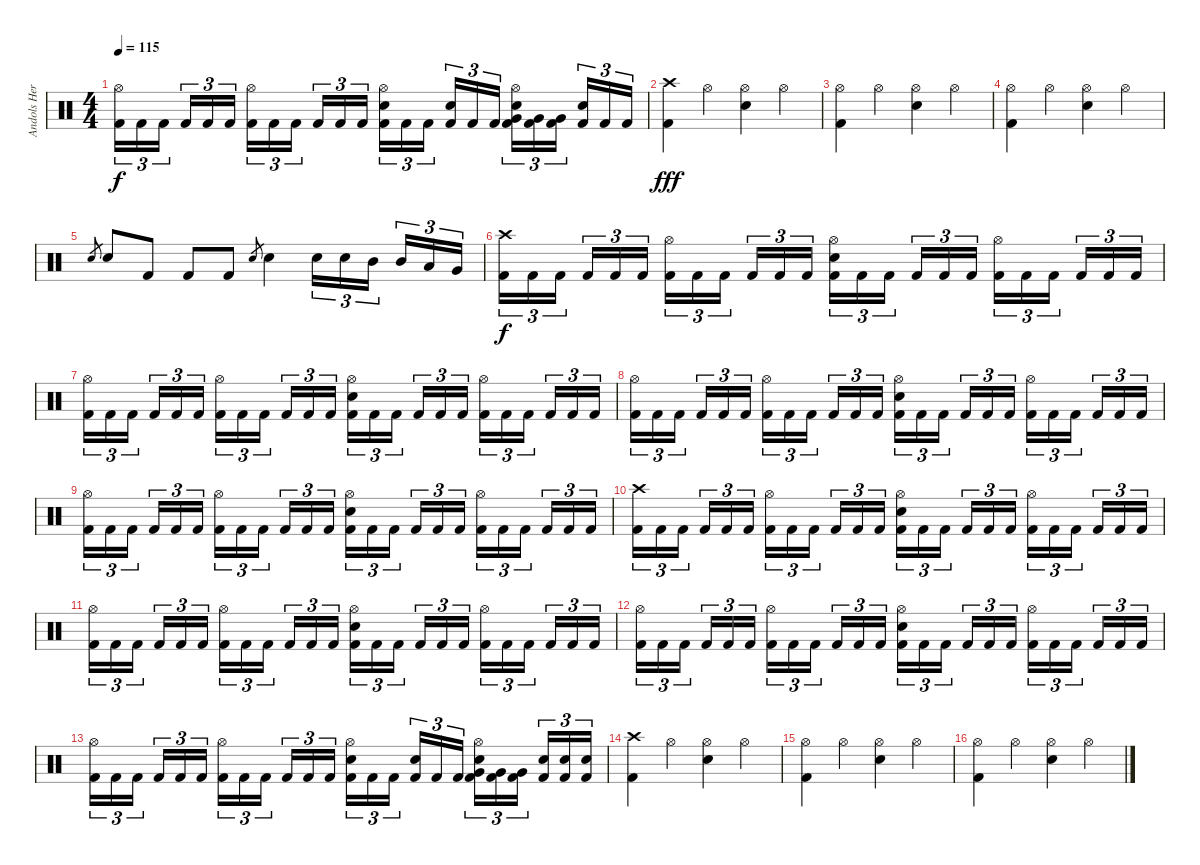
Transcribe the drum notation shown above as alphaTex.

\track ("Andols Herrick" "Andols Her") {instrument percussion}
\staff {score}
\articulation defaults
\ts (4 4)
\tempo 115
\clef neutral
\ks c
("Hi-Hat (open)" "Kick (hit) 2").16{tu (3 2) dy f} "Kick (hit) 2".16{tu (3 2)} "Kick (hit) 2".16{tu (3 2) beam splitsecondary} "Kick (hit) 2".16{tu (3 2)} "Kick (hit) 2".16{tu (3 2)} "Kick (hit) 2".16{tu (3 2)} ("Hi-Hat (open)" "Kick (hit) 2").16{tu (3 2)} "Kick (hit) 2".16{tu (3 2)} "Kick (hit) 2".16{tu (3 2) beam splitsecondary} "Kick (hit) 2".16{tu (3 2)} "Kick (hit) 2".16{tu (3 2)} "Kick (hit) 2".16{tu (3 2)} ("Hi-Hat (open)" "Electric Snare (hit)" "Kick (hit) 2").16{tu (3 2)} "Kick (hit) 2".16{tu (3 2)} "Kick (hit) 2".16{tu (3 2) beam splitsecondary} ("Electric Snare (hit)" "Kick (hit) 2").16{tu (3 2)} "Kick (hit) 2".16{tu (3 2)} "Kick (hit) 2".16{tu (3 2)} ("Hi-Hat (open)" "Electric Snare (hit)" "Very Low Tom (hit)" "Kick (hit) 2").16{tu (3 2)} ("Very Low Tom (hit)" "Kick (hit) 2").16{tu (3 2)} ("Very Low Tom (hit)" "Kick (hit) 2").16{tu (3 2) beam splitsecondary} ("Electric Snare (hit)" "Kick (hit) 2").16{tu (3 2)} "Kick (hit) 2".16{tu (3 2)} "Kick (hit) 2".16{tu (3 2)} |
("Crash high (hit)" "Kick (hit) 2").4{dy fff} "Hi-Hat (open)".4 ("Hi-Hat (open)" "Electric Snare (hit)").4 "Hi-Hat (open)".4 |
("Hi-Hat (open)" "Kick (hit) 2").4 "Hi-Hat (open)".4 ("Hi-Hat (open)" "Electric Snare (hit)").4 "Hi-Hat (open)".4 |
("Hi-Hat (open)" "Kick (hit) 2").4 "Hi-Hat (open)".4 ("Hi-Hat (open)" "Electric Snare (hit)").4 "Hi-Hat (open)".4 |
"Electric Snare (hit)".8{gr} "Electric Snare (hit)".8 "Kick (hit) 2".8 "Kick (hit) 2".8 "Kick (hit) 2".8 "Electric Snare (hit)".8{gr} "Electric Snare (hit)".4 "Electric Snare (hit)".16{tu (3 2)} "Electric Snare (hit)".16{tu (3 2)} "Mid Tom (hit)".16{tu (3 2) beam splitsecondary} "Mid Tom (hit)".16{tu (3 2)} "Low Tom (hit)".16{tu (3 2)} "Very Low Tom (hit)".16{tu (3 2)} |
("Crash high (hit)" "Kick (hit) 2").16{tu (3 2) dy f} "Kick (hit) 2".16{tu (3 2)} "Kick (hit) 2".16{tu (3 2) beam splitsecondary} "Kick (hit) 2".16{tu (3 2)} "Kick (hit) 2".16{tu (3 2)} "Kick (hit) 2".16{tu (3 2)} ("Hi-Hat (open)" "Kick (hit) 2").16{tu (3 2)} "Kick (hit) 2".16{tu (3 2)} "Kick (hit) 2".16{tu (3 2) beam splitsecondary} "Kick (hit) 2".16{tu (3 2)} "Kick (hit) 2".16{tu (3 2)} "Kick (hit) 2".16{tu (3 2)} ("Hi-Hat (open)" "Electric Snare (hit)" "Kick (hit) 2").16{tu (3 2)} "Kick (hit) 2".16{tu (3 2)} "Kick (hit) 2".16{tu (3 2) beam splitsecondary} "Kick (hit) 2".16{tu (3 2)} "Kick (hit) 2".16{tu (3 2)} "Kick (hit) 2".16{tu (3 2)} ("Hi-Hat (open)" "Kick (hit) 2").16{tu (3 2)} "Kick (hit) 2".16{tu (3 2)} "Kick (hit) 2".16{tu (3 2) beam splitsecondary} "Kick (hit) 2".16{tu (3 2)} "Kick (hit) 2".16{tu (3 2)} "Kick (hit) 2".16{tu (3 2)} |
("Hi-Hat (open)" "Kick (hit) 2").16{tu (3 2)} "Kick (hit) 2".16{tu (3 2)} "Kick (hit) 2".16{tu (3 2) beam splitsecondary} "Kick (hit) 2".16{tu (3 2)} "Kick (hit) 2".16{tu (3 2)} "Kick (hit) 2".16{tu (3 2)} ("Hi-Hat (open)" "Kick (hit) 2").16{tu (3 2)} "Kick (hit) 2".16{tu (3 2)} "Kick (hit) 2".16{tu (3 2) beam splitsecondary} "Kick (hit) 2".16{tu (3 2)} "Kick (hit) 2".16{tu (3 2)} "Kick (hit) 2".16{tu (3 2)} ("Hi-Hat (open)" "Electric Snare (hit)" "Kick (hit) 2").16{tu (3 2)} "Kick (hit) 2".16{tu (3 2)} "Kick (hit) 2".16{tu (3 2) beam splitsecondary} "Kick (hit) 2".16{tu (3 2)} "Kick (hit) 2".16{tu (3 2)} "Kick (hit) 2".16{tu (3 2)} ("Hi-Hat (open)" "Kick (hit) 2").16{tu (3 2)} "Kick (hit) 2".16{tu (3 2)} "Kick (hit) 2".16{tu (3 2) beam splitsecondary} "Kick (hit) 2".16{tu (3 2)} "Kick (hit) 2".16{tu (3 2)} "Kick (hit) 2".16{tu (3 2)} |
("Hi-Hat (open)" "Kick (hit) 2").16{tu (3 2)} "Kick (hit) 2".16{tu (3 2)} "Kick (hit) 2".16{tu (3 2) beam splitsecondary} "Kick (hit) 2".16{tu (3 2)} "Kick (hit) 2".16{tu (3 2)} "Kick (hit) 2".16{tu (3 2)} ("Hi-Hat (open)" "Kick (hit) 2").16{tu (3 2)} "Kick (hit) 2".16{tu (3 2)} "Kick (hit) 2".16{tu (3 2) beam splitsecondary} "Kick (hit) 2".16{tu (3 2)} "Kick (hit) 2".16{tu (3 2)} "Kick (hit) 2".16{tu (3 2)} ("Hi-Hat (open)" "Electric Snare (hit)" "Kick (hit) 2").16{tu (3 2)} "Kick (hit) 2".16{tu (3 2)} "Kick (hit) 2".16{tu (3 2) beam splitsecondary} "Kick (hit) 2".16{tu (3 2)} "Kick (hit) 2".16{tu (3 2)} "Kick (hit) 2".16{tu (3 2)} ("Hi-Hat (open)" "Kick (hit) 2").16{tu (3 2)} "Kick (hit) 2".16{tu (3 2)} "Kick (hit) 2".16{tu (3 2) beam splitsecondary} "Kick (hit) 2".16{tu (3 2)} "Kick (hit) 2".16{tu (3 2)} "Kick (hit) 2".16{tu (3 2)} |
("Hi-Hat (open)" "Kick (hit) 2").16{tu (3 2)} "Kick (hit) 2".16{tu (3 2)} "Kick (hit) 2".16{tu (3 2) beam splitsecondary} "Kick (hit) 2".16{tu (3 2)} "Kick (hit) 2".16{tu (3 2)} "Kick (hit) 2".16{tu (3 2)} ("Hi-Hat (open)" "Kick (hit) 2").16{tu (3 2)} "Kick (hit) 2".16{tu (3 2)} "Kick (hit) 2".16{tu (3 2) beam splitsecondary} "Kick (hit) 2".16{tu (3 2)} "Kick (hit) 2".16{tu (3 2)} "Kick (hit) 2".16{tu (3 2)} ("Hi-Hat (open)" "Electric Snare (hit)" "Kick (hit) 2").16{tu (3 2)} "Kick (hit) 2".16{tu (3 2)} "Kick (hit) 2".16{tu (3 2) beam splitsecondary} "Kick (hit) 2".16{tu (3 2)} "Kick (hit) 2".16{tu (3 2)} "Kick (hit) 2".16{tu (3 2)} ("Hi-Hat (open)" "Kick (hit) 2").16{tu (3 2)} "Kick (hit) 2".16{tu (3 2)} "Kick (hit) 2".16{tu (3 2) beam splitsecondary} "Kick (hit) 2".16{tu (3 2)} "Kick (hit) 2".16{tu (3 2)} "Kick (hit) 2".16{tu (3 2)} |
("Crash high (hit)" "Kick (hit) 2").16{tu (3 2)} "Kick (hit) 2".16{tu (3 2)} "Kick (hit) 2".16{tu (3 2) beam splitsecondary} "Kick (hit) 2".16{tu (3 2)} "Kick (hit) 2".16{tu (3 2)} "Kick (hit) 2".16{tu (3 2)} ("Hi-Hat (open)" "Kick (hit) 2").16{tu (3 2)} "Kick (hit) 2".16{tu (3 2)} "Kick (hit) 2".16{tu (3 2) beam splitsecondary} "Kick (hit) 2".16{tu (3 2)} "Kick (hit) 2".16{tu (3 2)} "Kick (hit) 2".16{tu (3 2)} ("Hi-Hat (open)" "Electric Snare (hit)" "Kick (hit) 2").16{tu (3 2)} "Kick (hit) 2".16{tu (3 2)} "Kick (hit) 2".16{tu (3 2) beam splitsecondary} "Kick (hit) 2".16{tu (3 2)} "Kick (hit) 2".16{tu (3 2)} "Kick (hit) 2".16{tu (3 2)} ("Hi-Hat (open)" "Kick (hit) 2").16{tu (3 2)} "Kick (hit) 2".16{tu (3 2)} "Kick (hit) 2".16{tu (3 2) beam splitsecondary} "Kick (hit) 2".16{tu (3 2)} "Kick (hit) 2".16{tu (3 2)} "Kick (hit) 2".16{tu (3 2)} |
("Hi-Hat (open)" "Kick (hit) 2").16{tu (3 2)} "Kick (hit) 2".16{tu (3 2)} "Kick (hit) 2".16{tu (3 2) beam splitsecondary} "Kick (hit) 2".16{tu (3 2)} "Kick (hit) 2".16{tu (3 2)} "Kick (hit) 2".16{tu (3 2)} ("Hi-Hat (open)" "Kick (hit) 2").16{tu (3 2)} "Kick (hit) 2".16{tu (3 2)} "Kick (hit) 2".16{tu (3 2) beam splitsecondary} "Kick (hit) 2".16{tu (3 2)} "Kick (hit) 2".16{tu (3 2)} "Kick (hit) 2".16{tu (3 2)} ("Hi-Hat (open)" "Electric Snare (hit)" "Kick (hit) 2").16{tu (3 2)} "Kick (hit) 2".16{tu (3 2)} "Kick (hit) 2".16{tu (3 2) beam splitsecondary} "Kick (hit) 2".16{tu (3 2)} "Kick (hit) 2".16{tu (3 2)} "Kick (hit) 2".16{tu (3 2)} ("Hi-Hat (open)" "Kick (hit) 2").16{tu (3 2)} "Kick (hit) 2".16{tu (3 2)} "Kick (hit) 2".16{tu (3 2) beam splitsecondary} "Kick (hit) 2".16{tu (3 2)} "Kick (hit) 2".16{tu (3 2)} "Kick (hit) 2".16{tu (3 2)} |
("Hi-Hat (open)" "Kick (hit) 2").16{tu (3 2)} "Kick (hit) 2".16{tu (3 2)} "Kick (hit) 2".16{tu (3 2) beam splitsecondary} "Kick (hit) 2".16{tu (3 2)} "Kick (hit) 2".16{tu (3 2)} "Kick (hit) 2".16{tu (3 2)} ("Hi-Hat (open)" "Kick (hit) 2").16{tu (3 2)} "Kick (hit) 2".16{tu (3 2)} "Kick (hit) 2".16{tu (3 2) beam splitsecondary} "Kick (hit) 2".16{tu (3 2)} "Kick (hit) 2".16{tu (3 2)} "Kick (hit) 2".16{tu (3 2)} ("Hi-Hat (open)" "Electric Snare (hit)" "Kick (hit) 2").16{tu (3 2)} "Kick (hit) 2".16{tu (3 2)} "Kick (hit) 2".16{tu (3 2) beam splitsecondary} "Kick (hit) 2".16{tu (3 2)} "Kick (hit) 2".16{tu (3 2)} "Kick (hit) 2".16{tu (3 2)} ("Hi-Hat (open)" "Kick (hit) 2").16{tu (3 2)} "Kick (hit) 2".16{tu (3 2)} "Kick (hit) 2".16{tu (3 2) beam splitsecondary} "Kick (hit) 2".16{tu (3 2)} "Kick (hit) 2".16{tu (3 2)} "Kick (hit) 2".16{tu (3 2)} |
("Hi-Hat (open)" "Kick (hit) 2").16{tu (3 2)} "Kick (hit) 2".16{tu (3 2)} "Kick (hit) 2".16{tu (3 2) beam splitsecondary} "Kick (hit) 2".16{tu (3 2)} "Kick (hit) 2".16{tu (3 2)} "Kick (hit) 2".16{tu (3 2)} ("Hi-Hat (open)" "Kick (hit) 2").16{tu (3 2)} "Kick (hit) 2".16{tu (3 2)} "Kick (hit) 2".16{tu (3 2) beam splitsecondary} "Kick (hit) 2".16{tu (3 2)} "Kick (hit) 2".16{tu (3 2)} "Kick (hit) 2".16{tu (3 2)} ("Hi-Hat (open)" "Electric Snare (hit)" "Kick (hit) 2").16{tu (3 2)} "Kick (hit) 2".16{tu (3 2)} "Kick (hit) 2".16{tu (3 2) beam splitsecondary} ("Electric Snare (hit)" "Kick (hit) 2").16{tu (3 2)} "Kick (hit) 2".16{tu (3 2)} "Kick (hit) 2".16{tu (3 2)} ("Hi-Hat (open)" "Electric Snare (hit)" "Very Low Tom (hit)" "Kick (hit) 2").16{tu (3 2)} ("Very Low Tom (hit)" "Kick (hit) 2").16{tu (3 2)} ("Very Low Tom (hit)" "Kick (hit) 2").16{tu (3 2) beam splitsecondary} ("Electric Snare (hit)" "Kick (hit) 2").16{tu (3 2)} ("Electric Snare (hit)" "Kick (hit) 2").16{tu (3 2)} ("Electric Snare (hit)" "Kick (hit) 2").16{tu (3 2)} |
("Crash high (hit)" "Kick (hit) 2").4 "Hi-Hat (open)".4 ("Hi-Hat (open)" "Electric Snare (hit)").4 "Hi-Hat (open)".4 |
("Hi-Hat (open)" "Kick (hit) 2").4 "Hi-Hat (open)".4 ("Hi-Hat (open)" "Electric Snare (hit)").4 "Hi-Hat (open)".4 |
("Hi-Hat (open)" "Kick (hit) 2").4 "Hi-Hat (open)".4 ("Hi-Hat (open)" "Electric Snare (hit)").4 "Hi-Hat (open)".4
